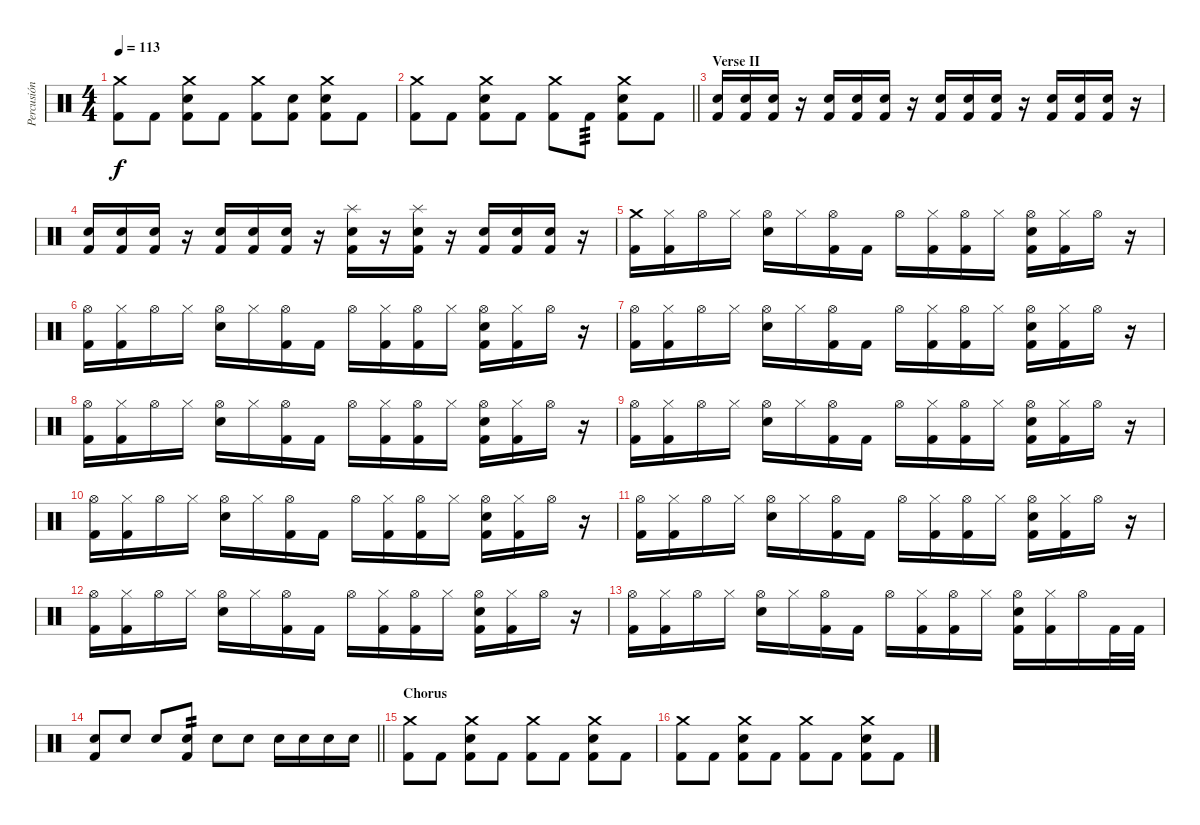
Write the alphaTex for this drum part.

\track ("Percusión" "Percusión") {instrument percussion}
\staff {score}
\articulation defaults
\ts (4 4)
\tempo 113
\clef neutral
\ks c
("Crash medium (hit)" "Kick (hit) 2").8{dy f} "Kick (hit) 2".8 ("Crash medium (hit)" "Electric Snare (hit)" "Kick (hit) 2").8 "Kick (hit) 2".8 ("Crash medium (hit)" "Kick (hit) 2").8 ("Electric Snare (hit)" "Kick (hit) 2").8 ("Crash medium (hit)" "Electric Snare (hit)" "Kick (hit) 2").8 "Kick (hit) 2".8 |
\barLineRight lightlight
("Crash medium (hit)" "Kick (hit) 2").8 "Kick (hit) 2".8 ("Crash medium (hit)" "Electric Snare (hit)" "Kick (hit) 2").8 "Kick (hit) 2".8 ("Crash medium (hit)" "Kick (hit) 2").8 "Kick (hit) 2".8{tp 3} ("Crash medium (hit)" "Electric Snare (hit)" "Kick (hit) 2").8 "Kick (hit) 2".8 |
\section ("" "Verse II")
("Electric Snare (hit)" "Kick (hit) 2").16 ("Electric Snare (hit)" "Kick (hit) 2").16 ("Electric Snare (hit)" "Kick (hit) 2").16 r.16 ("Electric Snare (hit)" "Kick (hit) 2").16 ("Electric Snare (hit)" "Kick (hit) 2").16 ("Electric Snare (hit)" "Kick (hit) 2").16 r.16 ("Electric Snare (hit)" "Kick (hit) 2").16 ("Electric Snare (hit)" "Kick (hit) 2").16 ("Electric Snare (hit)" "Kick (hit) 2").16 r.16 ("Electric Snare (hit)" "Kick (hit) 2").16 ("Electric Snare (hit)" "Kick (hit) 2").16 ("Electric Snare (hit)" "Kick (hit) 2").16 r.16 |
("Electric Snare (hit)" "Kick (hit) 2").16 ("Electric Snare (hit)" "Kick (hit) 2").16 ("Electric Snare (hit)" "Kick (hit) 2").16 r.16 ("Electric Snare (hit)" "Kick (hit) 2").16 ("Electric Snare (hit)" "Kick (hit) 2").16 ("Electric Snare (hit)" "Kick (hit) 2").16 r.16 ("Splash (hit)" "Electric Snare (hit)" "Kick (hit) 2").16 r.16 ("Splash (hit)" "Electric Snare (hit)" "Kick (hit) 2").16 r.16 ("Electric Snare (hit)" "Kick (hit) 2").16 ("Electric Snare (hit)" "Kick (hit) 2").16 ("Electric Snare (hit)" "Kick (hit) 2").16 r.16 |
("Crash medium (hit)" "Kick (hit) 2").16 ("Hi-Hat (closed)" "Kick (hit) 2").16 "Hi-Hat (open)".16 "Hi-Hat (closed)".16 ("Hi-Hat (open)" "Electric Snare (hit)").16 "Hi-Hat (closed)".16 ("Hi-Hat (open)" "Kick (hit) 2").16 "Kick (hit) 2".16 "Hi-Hat (open)".16 ("Hi-Hat (closed)" "Kick (hit) 2").16 ("Hi-Hat (open)" "Kick (hit) 2").16 "Hi-Hat (closed)".16 ("Hi-Hat (open)" "Electric Snare (hit)" "Kick (hit) 2").16 ("Hi-Hat (closed)" "Kick (hit) 2").16 "Hi-Hat (open)".16 r.16 |
("Hi-Hat (open)" "Kick (hit) 2").16 ("Hi-Hat (closed)" "Kick (hit) 2").16 "Hi-Hat (open)".16 "Hi-Hat (closed)".16 ("Hi-Hat (open)" "Electric Snare (hit)").16 "Hi-Hat (closed)".16 ("Hi-Hat (open)" "Kick (hit) 2").16 "Kick (hit) 2".16 "Hi-Hat (open)".16 ("Hi-Hat (closed)" "Kick (hit) 2").16 ("Hi-Hat (open)" "Kick (hit) 2").16 "Hi-Hat (closed)".16 ("Hi-Hat (open)" "Electric Snare (hit)" "Kick (hit) 2").16 ("Hi-Hat (closed)" "Kick (hit) 2").16 "Hi-Hat (open)".16 r.16 |
("Hi-Hat (open)" "Kick (hit) 2").16 ("Hi-Hat (closed)" "Kick (hit) 2").16 "Hi-Hat (open)".16 "Hi-Hat (closed)".16 ("Hi-Hat (open)" "Electric Snare (hit)").16 "Hi-Hat (closed)".16 ("Hi-Hat (open)" "Kick (hit) 2").16 "Kick (hit) 2".16 "Hi-Hat (open)".16 ("Hi-Hat (closed)" "Kick (hit) 2").16 ("Hi-Hat (open)" "Kick (hit) 2").16 "Hi-Hat (closed)".16 ("Hi-Hat (open)" "Electric Snare (hit)" "Kick (hit) 2").16 ("Hi-Hat (closed)" "Kick (hit) 2").16 "Hi-Hat (open)".16 r.16 |
("Hi-Hat (open)" "Kick (hit) 2").16 ("Hi-Hat (closed)" "Kick (hit) 2").16 "Hi-Hat (open)".16 "Hi-Hat (closed)".16 ("Hi-Hat (open)" "Electric Snare (hit)").16 "Hi-Hat (closed)".16 ("Hi-Hat (open)" "Kick (hit) 2").16 "Kick (hit) 2".16 "Hi-Hat (open)".16 ("Hi-Hat (closed)" "Kick (hit) 2").16 ("Hi-Hat (open)" "Kick (hit) 2").16 "Hi-Hat (closed)".16 ("Hi-Hat (open)" "Electric Snare (hit)" "Kick (hit) 2").16 ("Hi-Hat (closed)" "Kick (hit) 2").16 "Hi-Hat (open)".16 r.16 |
("Hi-Hat (open)" "Kick (hit) 2").16 ("Hi-Hat (closed)" "Kick (hit) 2").16 "Hi-Hat (open)".16 "Hi-Hat (closed)".16 ("Hi-Hat (open)" "Electric Snare (hit)").16 "Hi-Hat (closed)".16 ("Hi-Hat (open)" "Kick (hit) 2").16 "Kick (hit) 2".16 "Hi-Hat (open)".16 ("Hi-Hat (closed)" "Kick (hit) 2").16 ("Hi-Hat (open)" "Kick (hit) 2").16 "Hi-Hat (closed)".16 ("Hi-Hat (open)" "Electric Snare (hit)" "Kick (hit) 2").16 ("Hi-Hat (closed)" "Kick (hit) 2").16 "Hi-Hat (open)".16 r.16 |
("Hi-Hat (open)" "Kick (hit) 2").16 ("Hi-Hat (closed)" "Kick (hit) 2").16 "Hi-Hat (open)".16 "Hi-Hat (closed)".16 ("Hi-Hat (open)" "Electric Snare (hit)").16 "Hi-Hat (closed)".16 ("Hi-Hat (open)" "Kick (hit) 2").16 "Kick (hit) 2".16 "Hi-Hat (open)".16 ("Hi-Hat (closed)" "Kick (hit) 2").16 ("Hi-Hat (open)" "Kick (hit) 2").16 "Hi-Hat (closed)".16 ("Hi-Hat (open)" "Electric Snare (hit)" "Kick (hit) 2").16 ("Hi-Hat (closed)" "Kick (hit) 2").16 "Hi-Hat (open)".16 r.16 |
("Hi-Hat (open)" "Kick (hit) 2").16 ("Hi-Hat (closed)" "Kick (hit) 2").16 "Hi-Hat (open)".16 "Hi-Hat (closed)".16 ("Hi-Hat (open)" "Electric Snare (hit)").16 "Hi-Hat (closed)".16 ("Hi-Hat (open)" "Kick (hit) 2").16 "Kick (hit) 2".16 "Hi-Hat (open)".16 ("Hi-Hat (closed)" "Kick (hit) 2").16 ("Hi-Hat (open)" "Kick (hit) 2").16 "Hi-Hat (closed)".16 ("Hi-Hat (open)" "Electric Snare (hit)" "Kick (hit) 2").16 ("Hi-Hat (closed)" "Kick (hit) 2").16 "Hi-Hat (open)".16 r.16 |
("Hi-Hat (open)" "Kick (hit) 2").16 ("Hi-Hat (closed)" "Kick (hit) 2").16 "Hi-Hat (open)".16 "Hi-Hat (closed)".16 ("Hi-Hat (open)" "Electric Snare (hit)").16 "Hi-Hat (closed)".16 ("Hi-Hat (open)" "Kick (hit) 2").16 "Kick (hit) 2".16 "Hi-Hat (open)".16 ("Hi-Hat (closed)" "Kick (hit) 2").16 ("Hi-Hat (open)" "Kick (hit) 2").16 "Hi-Hat (closed)".16 ("Hi-Hat (open)" "Electric Snare (hit)" "Kick (hit) 2").16 ("Hi-Hat (closed)" "Kick (hit) 2").16 "Hi-Hat (open)".16 r.16 |
("Hi-Hat (open)" "Kick (hit) 2").16 ("Hi-Hat (closed)" "Kick (hit) 2").16 "Hi-Hat (open)".16 "Hi-Hat (closed)".16 ("Hi-Hat (open)" "Electric Snare (hit)").16 "Hi-Hat (closed)".16 ("Hi-Hat (open)" "Kick (hit) 2").16 "Kick (hit) 2".16 "Hi-Hat (open)".16 ("Hi-Hat (closed)" "Kick (hit) 2").16 ("Hi-Hat (open)" "Kick (hit) 2").16 "Hi-Hat (closed)".16 ("Hi-Hat (open)" "Electric Snare (hit)" "Kick (hit) 2").16 ("Hi-Hat (closed)" "Kick (hit) 2").16 "Hi-Hat (open)".16 "Kick (hit) 2".32 "Kick (hit) 2".32 |
\barLineRight lightlight
("Electric Snare (hit)" "Kick (hit) 2").8 "Electric Snare (hit)".8 "Electric Snare (hit)".8 ("Electric Snare (hit)" "Kick (hit) 2").8{tp 2} "Electric Snare (hit)".8 "Electric Snare (hit)".8 "Electric Snare (hit)".16 "Electric Snare (hit)".16 "Electric Snare (hit)".16 "Electric Snare (hit)".16 |
\section ("" "Chorus")
("Crash medium (hit)" "Kick (hit) 2").8 "Kick (hit) 2".8 ("Crash medium (hit)" "Electric Snare (hit)" "Kick (hit) 2").8 "Kick (hit) 2".8 ("Crash medium (hit)" "Kick (hit) 2").8 "Kick (hit) 2".8 ("Crash medium (hit)" "Electric Snare (hit)" "Kick (hit) 2").8 "Kick (hit) 2".8 |
("Crash medium (hit)" "Kick (hit) 2").8 "Kick (hit) 2".8 ("Crash medium (hit)" "Electric Snare (hit)" "Kick (hit) 2").8 "Kick (hit) 2".8 ("Crash medium (hit)" "Kick (hit) 2").8 "Kick (hit) 2".8 ("Crash medium (hit)" "Electric Snare (hit)" "Kick (hit) 2").8 "Kick (hit) 2".8
